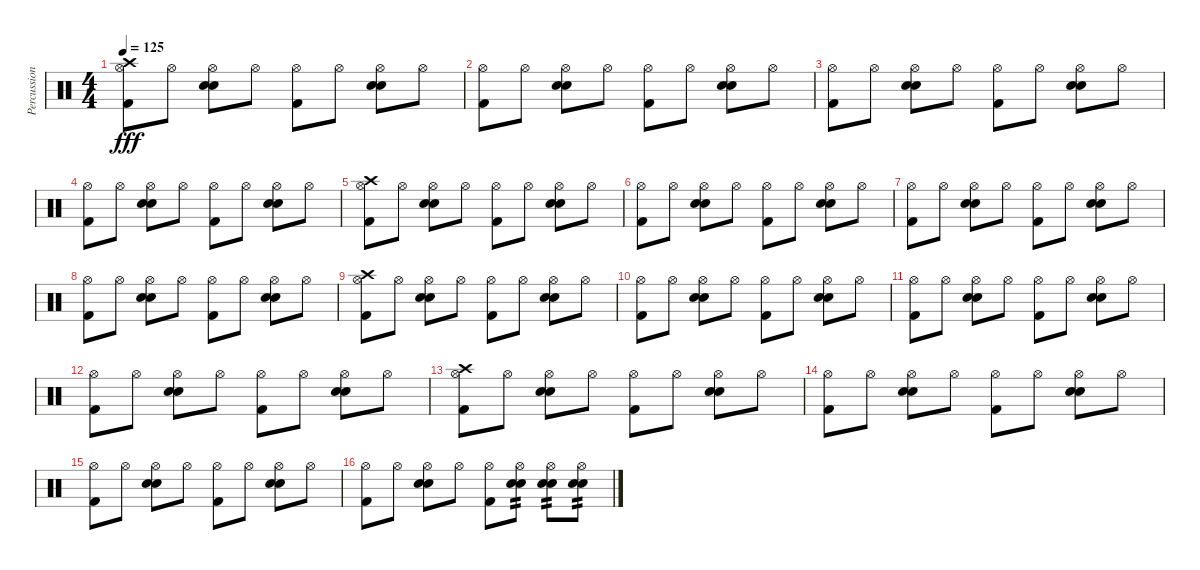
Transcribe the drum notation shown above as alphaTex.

\track ("Percussion" "Percussion") {instrument percussion}
\staff {score}
\articulation defaults
\ts (4 4)
\tempo 125
\clef neutral
\ks c
("Crash high (hit)" "Hi-Hat (open)" "Kick (hit) 2").8{dy fff} "Hi-Hat (open)".8 ("Electric Snare (hit)" "Snare (hit) 2" "Hi-Hat (open)").8 "Hi-Hat (open)".8 ("Hi-Hat (open)" "Kick (hit) 2").8 "Hi-Hat (open)".8 ("Electric Snare (hit)" "Snare (hit) 2" "Hi-Hat (open)").8 "Hi-Hat (open)".8 |
("Hi-Hat (open)" "Kick (hit) 2").8 "Hi-Hat (open)".8 ("Electric Snare (hit)" "Snare (hit) 2" "Hi-Hat (open)").8 "Hi-Hat (open)".8 ("Hi-Hat (open)" "Kick (hit) 2").8 "Hi-Hat (open)".8 ("Electric Snare (hit)" "Snare (hit) 2" "Hi-Hat (open)").8 "Hi-Hat (open)".8 |
("Hi-Hat (open)" "Kick (hit) 2").8 "Hi-Hat (open)".8 ("Electric Snare (hit)" "Snare (hit) 2" "Hi-Hat (open)").8 "Hi-Hat (open)".8 ("Hi-Hat (open)" "Kick (hit) 2").8 "Hi-Hat (open)".8 ("Electric Snare (hit)" "Snare (hit) 2" "Hi-Hat (open)").8 "Hi-Hat (open)".8 |
("Hi-Hat (open)" "Kick (hit) 2").8 "Hi-Hat (open)".8 ("Electric Snare (hit)" "Snare (hit) 2" "Hi-Hat (open)").8 "Hi-Hat (open)".8 ("Hi-Hat (open)" "Kick (hit) 2").8 "Hi-Hat (open)".8 ("Electric Snare (hit)" "Snare (hit) 2" "Hi-Hat (open)").8 "Hi-Hat (open)".8 |
("Crash high (hit)" "Hi-Hat (open)" "Kick (hit) 2").8 "Hi-Hat (open)".8 ("Electric Snare (hit)" "Snare (hit) 2" "Hi-Hat (open)").8 "Hi-Hat (open)".8 ("Hi-Hat (open)" "Kick (hit) 2").8 "Hi-Hat (open)".8 ("Electric Snare (hit)" "Snare (hit) 2" "Hi-Hat (open)").8 "Hi-Hat (open)".8 |
("Hi-Hat (open)" "Kick (hit) 2").8 "Hi-Hat (open)".8 ("Electric Snare (hit)" "Snare (hit) 2" "Hi-Hat (open)").8 "Hi-Hat (open)".8 ("Hi-Hat (open)" "Kick (hit) 2").8 "Hi-Hat (open)".8 ("Electric Snare (hit)" "Snare (hit) 2" "Hi-Hat (open)").8 "Hi-Hat (open)".8 |
("Hi-Hat (open)" "Kick (hit) 2").8 "Hi-Hat (open)".8 ("Electric Snare (hit)" "Snare (hit) 2" "Hi-Hat (open)").8 "Hi-Hat (open)".8 ("Hi-Hat (open)" "Kick (hit) 2").8 "Hi-Hat (open)".8 ("Electric Snare (hit)" "Snare (hit) 2" "Hi-Hat (open)").8 "Hi-Hat (open)".8 |
("Hi-Hat (open)" "Kick (hit) 2").8 "Hi-Hat (open)".8 ("Electric Snare (hit)" "Snare (hit) 2" "Hi-Hat (open)").8 "Hi-Hat (open)".8 ("Hi-Hat (open)" "Kick (hit) 2").8 "Hi-Hat (open)".8 ("Electric Snare (hit)" "Snare (hit) 2" "Hi-Hat (open)").8 "Hi-Hat (open)".8 |
("Crash high (hit)" "Hi-Hat (open)" "Kick (hit) 2").8 "Hi-Hat (open)".8 ("Electric Snare (hit)" "Snare (hit) 2" "Hi-Hat (open)").8 "Hi-Hat (open)".8 ("Hi-Hat (open)" "Kick (hit) 2").8 "Hi-Hat (open)".8 ("Electric Snare (hit)" "Snare (hit) 2" "Hi-Hat (open)").8 "Hi-Hat (open)".8 |
("Hi-Hat (open)" "Kick (hit) 2").8 "Hi-Hat (open)".8 ("Electric Snare (hit)" "Snare (hit) 2" "Hi-Hat (open)").8 "Hi-Hat (open)".8 ("Hi-Hat (open)" "Kick (hit) 2").8 "Hi-Hat (open)".8 ("Electric Snare (hit)" "Snare (hit) 2" "Hi-Hat (open)").8 "Hi-Hat (open)".8 |
("Hi-Hat (open)" "Kick (hit) 2").8 "Hi-Hat (open)".8 ("Electric Snare (hit)" "Snare (hit) 2" "Hi-Hat (open)").8 "Hi-Hat (open)".8 ("Hi-Hat (open)" "Kick (hit) 2").8 "Hi-Hat (open)".8 ("Electric Snare (hit)" "Snare (hit) 2" "Hi-Hat (open)").8 "Hi-Hat (open)".8 |
("Hi-Hat (open)" "Kick (hit) 2").8 "Hi-Hat (open)".8 ("Electric Snare (hit)" "Snare (hit) 2" "Hi-Hat (open)").8 "Hi-Hat (open)".8 ("Hi-Hat (open)" "Kick (hit) 2").8 "Hi-Hat (open)".8 ("Electric Snare (hit)" "Snare (hit) 2" "Hi-Hat (open)").8 "Hi-Hat (open)".8 |
("Crash high (hit)" "Hi-Hat (open)" "Kick (hit) 2").8 "Hi-Hat (open)".8 ("Electric Snare (hit)" "Snare (hit) 2" "Hi-Hat (open)").8 "Hi-Hat (open)".8 ("Hi-Hat (open)" "Kick (hit) 2").8 "Hi-Hat (open)".8 ("Electric Snare (hit)" "Snare (hit) 2" "Hi-Hat (open)").8 "Hi-Hat (open)".8 |
("Hi-Hat (open)" "Kick (hit) 2").8 "Hi-Hat (open)".8 ("Electric Snare (hit)" "Snare (hit) 2" "Hi-Hat (open)").8 "Hi-Hat (open)".8 ("Hi-Hat (open)" "Kick (hit) 2").8 "Hi-Hat (open)".8 ("Electric Snare (hit)" "Snare (hit) 2" "Hi-Hat (open)").8 "Hi-Hat (open)".8 |
("Hi-Hat (open)" "Kick (hit) 2").8 "Hi-Hat (open)".8 ("Electric Snare (hit)" "Snare (hit) 2" "Hi-Hat (open)").8 "Hi-Hat (open)".8 ("Hi-Hat (open)" "Kick (hit) 2").8 "Hi-Hat (open)".8 ("Electric Snare (hit)" "Snare (hit) 2" "Hi-Hat (open)").8 "Hi-Hat (open)".8 |
("Hi-Hat (open)" "Kick (hit) 2").8 "Hi-Hat (open)".8 ("Electric Snare (hit)" "Snare (hit) 2" "Hi-Hat (open)").8 "Hi-Hat (open)".8 ("Hi-Hat (open)" "Kick (hit) 2").8 ("Electric Snare (hit)" "Snare (hit) 2" "Hi-Hat (open)").8{tp 2} ("Electric Snare (hit)" "Snare (hit) 2" "Hi-Hat (open)").8{tp 2} ("Electric Snare (hit)" "Snare (hit) 2" "Hi-Hat (open)").8{tp 2}
